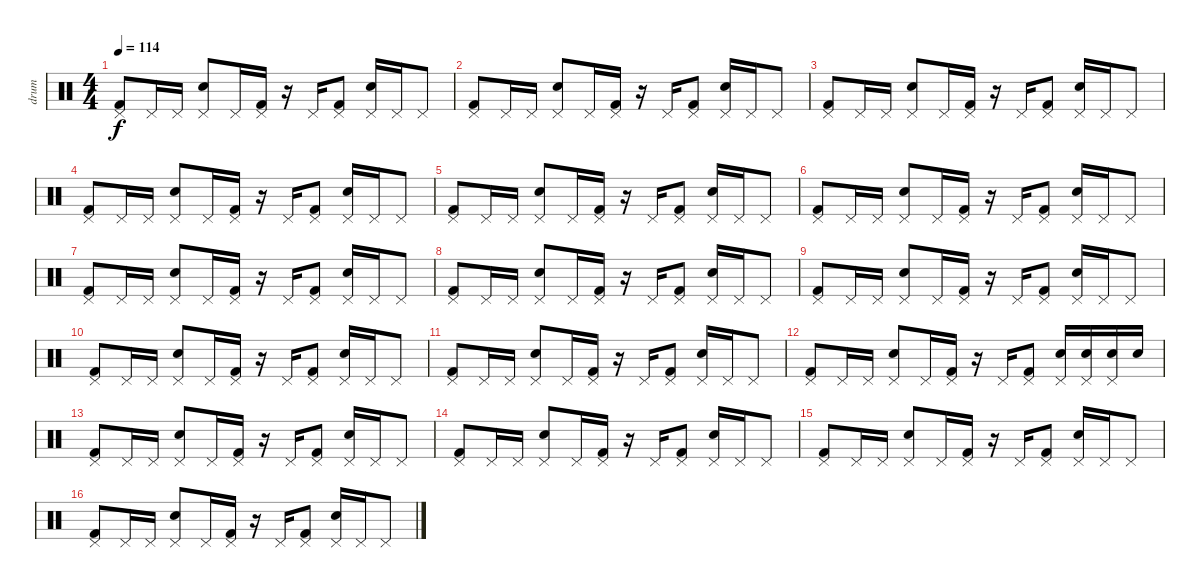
\track ("drum" "drum") {instrument percussion}
\staff {score}
\articulation defaults
\ts (4 4)
\tempo 114
\clef neutral
\ks c
("Pedal Hi-Hat (hit)" "Kick (hit) 2").8{dy f} "Pedal Hi-Hat (hit)".16 "Pedal Hi-Hat (hit)".16 ("Pedal Hi-Hat (hit)" "Electric Snare (hit)").8 "Pedal Hi-Hat (hit)".16 ("Pedal Hi-Hat (hit)" "Kick (hit) 2").16 r.16 "Pedal Hi-Hat (hit)".16 ("Pedal Hi-Hat (hit)" "Kick (hit) 2").8 ("Pedal Hi-Hat (hit)" "Electric Snare (hit)").16 "Pedal Hi-Hat (hit)".16 "Pedal Hi-Hat (hit)".8 |
("Pedal Hi-Hat (hit)" "Kick (hit) 2").8 "Pedal Hi-Hat (hit)".16 "Pedal Hi-Hat (hit)".16 ("Pedal Hi-Hat (hit)" "Electric Snare (hit)").8 "Pedal Hi-Hat (hit)".16 ("Pedal Hi-Hat (hit)" "Kick (hit) 2").16 r.16 "Pedal Hi-Hat (hit)".16 ("Pedal Hi-Hat (hit)" "Kick (hit) 2").8 ("Pedal Hi-Hat (hit)" "Electric Snare (hit)").16 "Pedal Hi-Hat (hit)".16 "Pedal Hi-Hat (hit)".8 |
("Pedal Hi-Hat (hit)" "Kick (hit) 2").8 "Pedal Hi-Hat (hit)".16 "Pedal Hi-Hat (hit)".16 ("Pedal Hi-Hat (hit)" "Electric Snare (hit)").8 "Pedal Hi-Hat (hit)".16 ("Pedal Hi-Hat (hit)" "Kick (hit) 2").16 r.16 "Pedal Hi-Hat (hit)".16 ("Pedal Hi-Hat (hit)" "Kick (hit) 2").8 ("Pedal Hi-Hat (hit)" "Electric Snare (hit)").16 "Pedal Hi-Hat (hit)".16 "Pedal Hi-Hat (hit)".8 |
("Pedal Hi-Hat (hit)" "Kick (hit) 2").8 "Pedal Hi-Hat (hit)".16 "Pedal Hi-Hat (hit)".16 ("Pedal Hi-Hat (hit)" "Electric Snare (hit)").8 "Pedal Hi-Hat (hit)".16 ("Pedal Hi-Hat (hit)" "Kick (hit) 2").16 r.16 "Pedal Hi-Hat (hit)".16 ("Pedal Hi-Hat (hit)" "Kick (hit) 2").8 ("Pedal Hi-Hat (hit)" "Electric Snare (hit)").16 "Pedal Hi-Hat (hit)".16 "Pedal Hi-Hat (hit)".8 |
("Pedal Hi-Hat (hit)" "Kick (hit) 2").8 "Pedal Hi-Hat (hit)".16 "Pedal Hi-Hat (hit)".16 ("Pedal Hi-Hat (hit)" "Electric Snare (hit)").8 "Pedal Hi-Hat (hit)".16 ("Pedal Hi-Hat (hit)" "Kick (hit) 2").16 r.16 "Pedal Hi-Hat (hit)".16 ("Pedal Hi-Hat (hit)" "Kick (hit) 2").8 ("Pedal Hi-Hat (hit)" "Electric Snare (hit)").16 "Pedal Hi-Hat (hit)".16 "Pedal Hi-Hat (hit)".8 |
("Pedal Hi-Hat (hit)" "Kick (hit) 2").8 "Pedal Hi-Hat (hit)".16 "Pedal Hi-Hat (hit)".16 ("Pedal Hi-Hat (hit)" "Electric Snare (hit)").8 "Pedal Hi-Hat (hit)".16 ("Pedal Hi-Hat (hit)" "Kick (hit) 2").16 r.16 "Pedal Hi-Hat (hit)".16 ("Pedal Hi-Hat (hit)" "Kick (hit) 2").8 ("Pedal Hi-Hat (hit)" "Electric Snare (hit)").16 "Pedal Hi-Hat (hit)".16 "Pedal Hi-Hat (hit)".8 |
("Pedal Hi-Hat (hit)" "Kick (hit) 2").8 "Pedal Hi-Hat (hit)".16 "Pedal Hi-Hat (hit)".16 ("Pedal Hi-Hat (hit)" "Electric Snare (hit)").8 "Pedal Hi-Hat (hit)".16 ("Pedal Hi-Hat (hit)" "Kick (hit) 2").16 r.16 "Pedal Hi-Hat (hit)".16 ("Pedal Hi-Hat (hit)" "Kick (hit) 2").8 ("Pedal Hi-Hat (hit)" "Electric Snare (hit)").16 "Pedal Hi-Hat (hit)".16 "Pedal Hi-Hat (hit)".8 |
("Pedal Hi-Hat (hit)" "Kick (hit) 2").8 "Pedal Hi-Hat (hit)".16 "Pedal Hi-Hat (hit)".16 ("Pedal Hi-Hat (hit)" "Electric Snare (hit)").8 "Pedal Hi-Hat (hit)".16 ("Pedal Hi-Hat (hit)" "Kick (hit) 2").16 r.16 "Pedal Hi-Hat (hit)".16 ("Pedal Hi-Hat (hit)" "Kick (hit) 2").8 ("Pedal Hi-Hat (hit)" "Electric Snare (hit)").16 "Pedal Hi-Hat (hit)".16 "Pedal Hi-Hat (hit)".8 |
("Pedal Hi-Hat (hit)" "Kick (hit) 2").8 "Pedal Hi-Hat (hit)".16 "Pedal Hi-Hat (hit)".16 ("Pedal Hi-Hat (hit)" "Electric Snare (hit)").8 "Pedal Hi-Hat (hit)".16 ("Pedal Hi-Hat (hit)" "Kick (hit) 2").16 r.16 "Pedal Hi-Hat (hit)".16 ("Pedal Hi-Hat (hit)" "Kick (hit) 2").8 ("Pedal Hi-Hat (hit)" "Electric Snare (hit)").16 "Pedal Hi-Hat (hit)".16 "Pedal Hi-Hat (hit)".8 |
("Pedal Hi-Hat (hit)" "Kick (hit) 2").8 "Pedal Hi-Hat (hit)".16 "Pedal Hi-Hat (hit)".16 ("Pedal Hi-Hat (hit)" "Electric Snare (hit)").8 "Pedal Hi-Hat (hit)".16 ("Pedal Hi-Hat (hit)" "Kick (hit) 2").16 r.16 "Pedal Hi-Hat (hit)".16 ("Pedal Hi-Hat (hit)" "Kick (hit) 2").8 ("Pedal Hi-Hat (hit)" "Electric Snare (hit)").16 "Pedal Hi-Hat (hit)".16 "Pedal Hi-Hat (hit)".8 |
("Pedal Hi-Hat (hit)" "Kick (hit) 2").8 "Pedal Hi-Hat (hit)".16 "Pedal Hi-Hat (hit)".16 ("Pedal Hi-Hat (hit)" "Electric Snare (hit)").8 "Pedal Hi-Hat (hit)".16 ("Pedal Hi-Hat (hit)" "Kick (hit) 2").16 r.16 "Pedal Hi-Hat (hit)".16 ("Pedal Hi-Hat (hit)" "Kick (hit) 2").8 ("Pedal Hi-Hat (hit)" "Electric Snare (hit)").16 "Pedal Hi-Hat (hit)".16 "Pedal Hi-Hat (hit)".8 |
("Pedal Hi-Hat (hit)" "Kick (hit) 2").8 "Pedal Hi-Hat (hit)".16 "Pedal Hi-Hat (hit)".16 ("Pedal Hi-Hat (hit)" "Electric Snare (hit)").8 "Pedal Hi-Hat (hit)".16 ("Pedal Hi-Hat (hit)" "Kick (hit) 2").16 r.16 "Pedal Hi-Hat (hit)".16 ("Pedal Hi-Hat (hit)" "Kick (hit) 2").8 ("Pedal Hi-Hat (hit)" "Electric Snare (hit)").16 ("Pedal Hi-Hat (hit)" "Electric Snare (hit)").16 ("Pedal Hi-Hat (hit)" "Electric Snare (hit)").16 "Electric Snare (hit)".16 |
("Pedal Hi-Hat (hit)" "Kick (hit) 2").8 "Pedal Hi-Hat (hit)".16 "Pedal Hi-Hat (hit)".16 ("Pedal Hi-Hat (hit)" "Electric Snare (hit)").8 "Pedal Hi-Hat (hit)".16 ("Pedal Hi-Hat (hit)" "Kick (hit) 2").16 r.16 "Pedal Hi-Hat (hit)".16 ("Pedal Hi-Hat (hit)" "Kick (hit) 2").8 ("Pedal Hi-Hat (hit)" "Electric Snare (hit)").16 "Pedal Hi-Hat (hit)".16 "Pedal Hi-Hat (hit)".8 |
("Pedal Hi-Hat (hit)" "Kick (hit) 2").8 "Pedal Hi-Hat (hit)".16 "Pedal Hi-Hat (hit)".16 ("Pedal Hi-Hat (hit)" "Electric Snare (hit)").8 "Pedal Hi-Hat (hit)".16 ("Pedal Hi-Hat (hit)" "Kick (hit) 2").16 r.16 "Pedal Hi-Hat (hit)".16 ("Pedal Hi-Hat (hit)" "Kick (hit) 2").8 ("Pedal Hi-Hat (hit)" "Electric Snare (hit)").16 "Pedal Hi-Hat (hit)".16 "Pedal Hi-Hat (hit)".8 |
("Pedal Hi-Hat (hit)" "Kick (hit) 2").8 "Pedal Hi-Hat (hit)".16 "Pedal Hi-Hat (hit)".16 ("Pedal Hi-Hat (hit)" "Electric Snare (hit)").8 "Pedal Hi-Hat (hit)".16 ("Pedal Hi-Hat (hit)" "Kick (hit) 2").16 r.16 "Pedal Hi-Hat (hit)".16 ("Pedal Hi-Hat (hit)" "Kick (hit) 2").8 ("Pedal Hi-Hat (hit)" "Electric Snare (hit)").16 "Pedal Hi-Hat (hit)".16 "Pedal Hi-Hat (hit)".8 |
("Pedal Hi-Hat (hit)" "Kick (hit) 2").8 "Pedal Hi-Hat (hit)".16 "Pedal Hi-Hat (hit)".16 ("Pedal Hi-Hat (hit)" "Electric Snare (hit)").8 "Pedal Hi-Hat (hit)".16 ("Pedal Hi-Hat (hit)" "Kick (hit) 2").16 r.16 "Pedal Hi-Hat (hit)".16 ("Pedal Hi-Hat (hit)" "Kick (hit) 2").8 ("Pedal Hi-Hat (hit)" "Electric Snare (hit)").16 "Pedal Hi-Hat (hit)".16 "Pedal Hi-Hat (hit)".8
